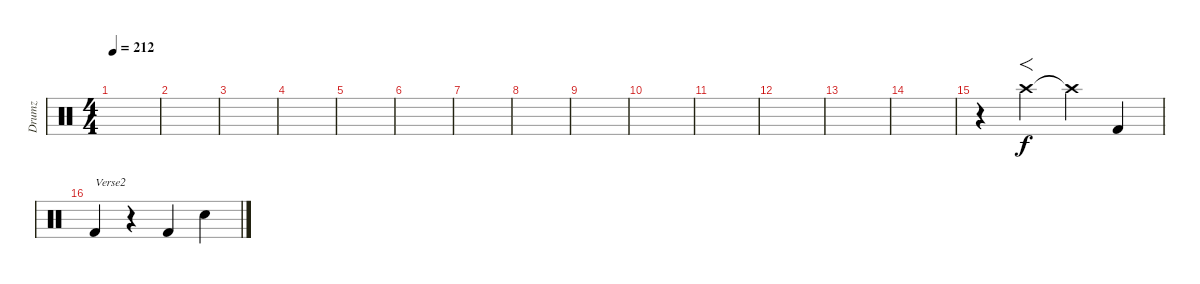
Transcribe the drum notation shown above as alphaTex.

\track ("Drumz" "Drumz") {instrument percussion}
\staff {score}
\articulation defaults
\ts (4 4)
\tempo 212
\clef neutral
\ks c
|
|
|
|
|
|
|
|
|
|
|
|
|
|
r.4 "Crash high (hit)".4{f} "Crash high (hit)"{t}.4 "Kick (hit) 2".4 |
"Kick (hit) 2".4{txt "Verse2"} r.4 "Kick (hit) 2".4 "Snare (hit) 2".4
